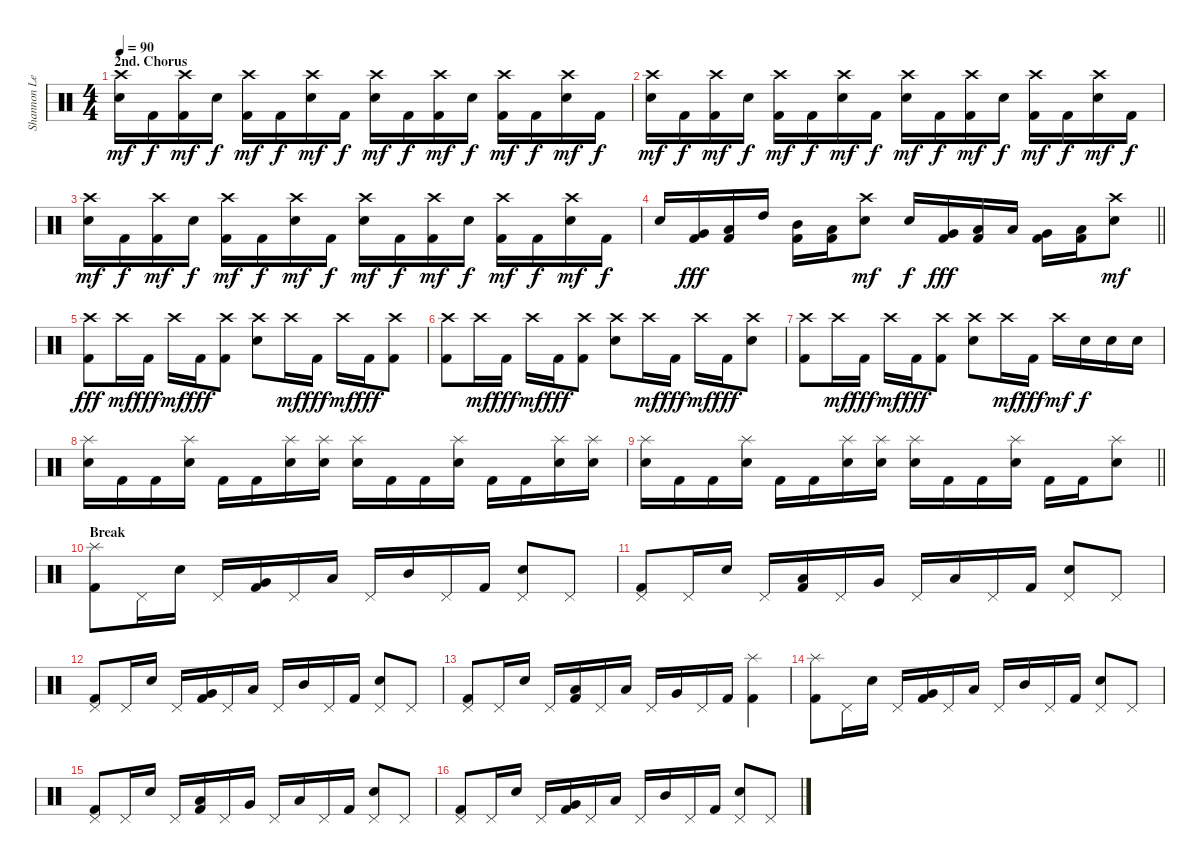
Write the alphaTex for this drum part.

\track ("Shannon Leto - Drums" "Shannon Le") {instrument percussion}
\staff {score}
\articulation defaults
\ts (4 4)
\section ("" "2nd. Chorus")
\tempo 90
\clef neutral
\ks c
("Crash high (hit)" "Electric Snare (hit)").16{dy mf} "Kick (hit) 2".16{dy f} ("Crash high (hit)" "Kick (hit) 2").16{dy mf} "Electric Snare (hit)".16{dy f} ("Crash high (hit)" "Kick (hit) 2").16{dy mf} "Kick (hit) 2".16{dy f} ("Crash high (hit)" "Electric Snare (hit)").16{dy mf} "Kick (hit) 2".16{dy f} ("Crash high (hit)" "Electric Snare (hit)").16{dy mf} "Kick (hit) 2".16{dy f} ("Crash high (hit)" "Kick (hit) 2").16{dy mf} "Electric Snare (hit)".16{dy f} ("Crash high (hit)" "Kick (hit) 2").16{dy mf} "Kick (hit) 2".16{dy f} ("Crash high (hit)" "Electric Snare (hit)").16{dy mf} "Kick (hit) 2".16{dy f} |
("Crash high (hit)" "Electric Snare (hit)").16{dy mf} "Kick (hit) 2".16{dy f} ("Crash high (hit)" "Kick (hit) 2").16{dy mf} "Electric Snare (hit)".16{dy f} ("Crash high (hit)" "Kick (hit) 2").16{dy mf} "Kick (hit) 2".16{dy f} ("Crash high (hit)" "Electric Snare (hit)").16{dy mf} "Kick (hit) 2".16{dy f} ("Crash high (hit)" "Electric Snare (hit)").16{dy mf} "Kick (hit) 2".16{dy f} ("Crash high (hit)" "Kick (hit) 2").16{dy mf} "Electric Snare (hit)".16{dy f} ("Crash high (hit)" "Kick (hit) 2").16{dy mf} "Kick (hit) 2".16{dy f} ("Crash high (hit)" "Electric Snare (hit)").16{dy mf} "Kick (hit) 2".16{dy f} |
("Crash high (hit)" "Electric Snare (hit)").16{dy mf} "Kick (hit) 2".16{dy f} ("Crash high (hit)" "Kick (hit) 2").16{dy mf} "Electric Snare (hit)".16{dy f} ("Crash high (hit)" "Kick (hit) 2").16{dy mf} "Kick (hit) 2".16{dy f} ("Crash high (hit)" "Electric Snare (hit)").16{dy mf} "Kick (hit) 2".16{dy f} ("Crash high (hit)" "Electric Snare (hit)").16{dy mf} "Kick (hit) 2".16{dy f} ("Crash high (hit)" "Kick (hit) 2").16{dy mf} "Electric Snare (hit)".16{dy f} ("Crash high (hit)" "Kick (hit) 2").16{dy mf} "Kick (hit) 2".16{dy f} ("Crash high (hit)" "Electric Snare (hit)").16{dy mf} "Kick (hit) 2".16{dy f} |
\barLineRight lightlight "Electric Snare (hit)".16
("Very Low Tom (hit)" "Kick (hit) 2").16{dy fff} ("Low Floor Tom (hit)" "Kick (hit) 2").16 "High Tom (hit)".16 ("Mid Tom (hit)" "Kick (hit) 2").16 ("Low Tom (hit)" "Kick (hit) 2").16 ("Crash high (hit)" "Electric Snare (hit)").8{dy mf} "Electric Snare (hit)".16{dy f} ("Very Low Tom (hit)" "Kick (hit) 2").16{dy fff} ("Low Floor Tom (hit)" "Kick (hit) 2").16 "Low Tom (hit)".16 ("Very Low Tom (hit)" "Kick (hit) 2").16 ("Low Floor Tom (hit)" "Kick (hit) 2").16 ("Crash high (hit)" "Electric Snare (hit)").8{dy mf} |
\section ("" "")
("Crash high (hit)" "Kick (hit) 2").8{dy fff} "Crash high (hit)".16{dy mf} "Kick (hit) 2".16{dy fff} "Crash high (hit)".16{dy mf} "Kick (hit) 2".16{dy fff} ("Crash high (hit)" "Kick (hit) 2").8 ("Crash high (hit)" "Electric Snare (hit)").8 "Crash high (hit)".16{dy mf} "Kick (hit) 2".16{dy fff} "Crash high (hit)".16{dy mf} "Kick (hit) 2".16{dy fff} ("Crash high (hit)" "Kick (hit) 2").8 |
("Crash high (hit)" "Kick (hit) 2").8 "Crash high (hit)".16{dy mf} "Kick (hit) 2".16{dy fff} "Crash high (hit)".16{dy mf} "Kick (hit) 2".16{dy fff} ("Crash high (hit)" "Kick (hit) 2").8 ("Crash high (hit)" "Electric Snare (hit)").8 "Crash high (hit)".16{dy mf} "Kick (hit) 2".16{dy fff} "Crash high (hit)".16{dy mf} "Kick (hit) 2".16{dy fff} ("Crash high (hit)" "Electric Snare (hit)").8 |
("Crash high (hit)" "Kick (hit) 2").8 "Crash high (hit)".16{dy mf} "Kick (hit) 2".16{dy fff} "Crash high (hit)".16{dy mf} "Kick (hit) 2".16{dy fff} ("Crash high (hit)" "Kick (hit) 2").8 ("Crash high (hit)" "Electric Snare (hit)").8 "Crash high (hit)".16{dy mf} "Kick (hit) 2".16{dy fff} "Crash high (hit)".16{dy mf} "Electric Snare (hit)".16{dy f} "Electric Snare (hit)".16 "Electric Snare (hit)".16 |
("Splash (hit)" "Electric Snare (hit)").16 "Kick (hit) 2".16 "Kick (hit) 2".16 ("Splash (hit)" "Electric Snare (hit)").16 "Kick (hit) 2".16 "Kick (hit) 2".16 ("Splash (hit)" "Electric Snare (hit)").16 ("Splash (hit)" "Electric Snare (hit)").16 ("Splash (hit)" "Electric Snare (hit)").16 "Kick (hit) 2".16 "Kick (hit) 2".16 ("Splash (hit)" "Electric Snare (hit)").16 "Kick (hit) 2".16 "Kick (hit) 2".16 ("Splash (hit)" "Electric Snare (hit)").16 ("Splash (hit)" "Electric Snare (hit)").16 |
\barLineRight lightlight
("Splash (hit)" "Electric Snare (hit)").16 "Kick (hit) 2".16 "Kick (hit) 2".16 ("Splash (hit)" "Electric Snare (hit)").16 "Kick (hit) 2".16 "Kick (hit) 2".16 ("Splash (hit)" "Electric Snare (hit)").16 ("Splash (hit)" "Electric Snare (hit)").16 ("Splash (hit)" "Electric Snare (hit)").16 "Kick (hit) 2".16 "Kick (hit) 2".16 ("Splash (hit)" "Electric Snare (hit)").16 "Kick (hit) 2".16 "Kick (hit) 2".16 ("Splash (hit)" "Electric Snare (hit)").8 |
\section ("" "Break")
("Splash (hit)" "Kick (hit) 2").8 "Pedal Hi-Hat (hit)".16 "Electric Snare (hit)".16 "Pedal Hi-Hat (hit)".16 ("Very Low Tom (hit)" "Kick (hit) 2").16 "Pedal Hi-Hat (hit)".16 "Low Tom (hit)".16 "Pedal Hi-Hat (hit)".16 "Mid Tom (hit)".16 "Pedal Hi-Hat (hit)".16 "Kick (hit) 2".16 ("Pedal Hi-Hat (hit)" "Electric Snare (hit)").8 "Pedal Hi-Hat (hit)".8 |
("Pedal Hi-Hat (hit)" "Kick (hit) 2").8 "Pedal Hi-Hat (hit)".16 "Electric Snare (hit)".16 "Pedal Hi-Hat (hit)".16 ("Low Floor Tom (hit)" "Kick (hit) 2").16 "Pedal Hi-Hat (hit)".16 "Very Low Tom (hit)".16 "Pedal Hi-Hat (hit)".16 "Low Tom (hit)".16 "Pedal Hi-Hat (hit)".16 "Kick (hit) 2".16 ("Pedal Hi-Hat (hit)" "Electric Snare (hit)").8 "Pedal Hi-Hat (hit)".8 |
("Pedal Hi-Hat (hit)" "Kick (hit) 2").8 "Pedal Hi-Hat (hit)".16 "Electric Snare (hit)".16 "Pedal Hi-Hat (hit)".16 ("Very Low Tom (hit)" "Kick (hit) 2").16 "Pedal Hi-Hat (hit)".16 "Low Tom (hit)".16 "Pedal Hi-Hat (hit)".16 "Mid Tom (hit)".16 "Pedal Hi-Hat (hit)".16 "Kick (hit) 2".16 ("Pedal Hi-Hat (hit)" "Electric Snare (hit)").8 "Pedal Hi-Hat (hit)".8 |
("Pedal Hi-Hat (hit)" "Kick (hit) 2").8 "Pedal Hi-Hat (hit)".16 "Electric Snare (hit)".16 "Pedal Hi-Hat (hit)".16 ("Low Floor Tom (hit)" "Kick (hit) 2").16 "Pedal Hi-Hat (hit)".16 "Low Tom (hit)".16 "Pedal Hi-Hat (hit)".16 "Very Low Tom (hit)".16 "Pedal Hi-Hat (hit)".16 "Kick (hit) 2".16 ("Splash (hit)" "Kick (hit) 2").4 |
("Splash (hit)" "Kick (hit) 2").8 "Pedal Hi-Hat (hit)".16 "Electric Snare (hit)".16 "Pedal Hi-Hat (hit)".16 ("Very Low Tom (hit)" "Kick (hit) 2").16 "Pedal Hi-Hat (hit)".16 "Low Tom (hit)".16 "Pedal Hi-Hat (hit)".16 "Mid Tom (hit)".16 "Pedal Hi-Hat (hit)".16 "Kick (hit) 2".16 ("Pedal Hi-Hat (hit)" "Electric Snare (hit)").8 "Pedal Hi-Hat (hit)".8 |
("Pedal Hi-Hat (hit)" "Kick (hit) 2").8 "Pedal Hi-Hat (hit)".16 "Electric Snare (hit)".16 "Pedal Hi-Hat (hit)".16 ("Low Floor Tom (hit)" "Kick (hit) 2").16 "Pedal Hi-Hat (hit)".16 "Very Low Tom (hit)".16 "Pedal Hi-Hat (hit)".16 "Low Tom (hit)".16 "Pedal Hi-Hat (hit)".16 "Kick (hit) 2".16 ("Pedal Hi-Hat (hit)" "Electric Snare (hit)").8 "Pedal Hi-Hat (hit)".8 |
("Pedal Hi-Hat (hit)" "Kick (hit) 2").8 "Pedal Hi-Hat (hit)".16 "Electric Snare (hit)".16 "Pedal Hi-Hat (hit)".16 ("Very Low Tom (hit)" "Kick (hit) 2").16 "Pedal Hi-Hat (hit)".16 "Low Tom (hit)".16 "Pedal Hi-Hat (hit)".16 "Mid Tom (hit)".16 "Pedal Hi-Hat (hit)".16 "Kick (hit) 2".16 ("Pedal Hi-Hat (hit)" "Electric Snare (hit)").8 "Pedal Hi-Hat (hit)".8
